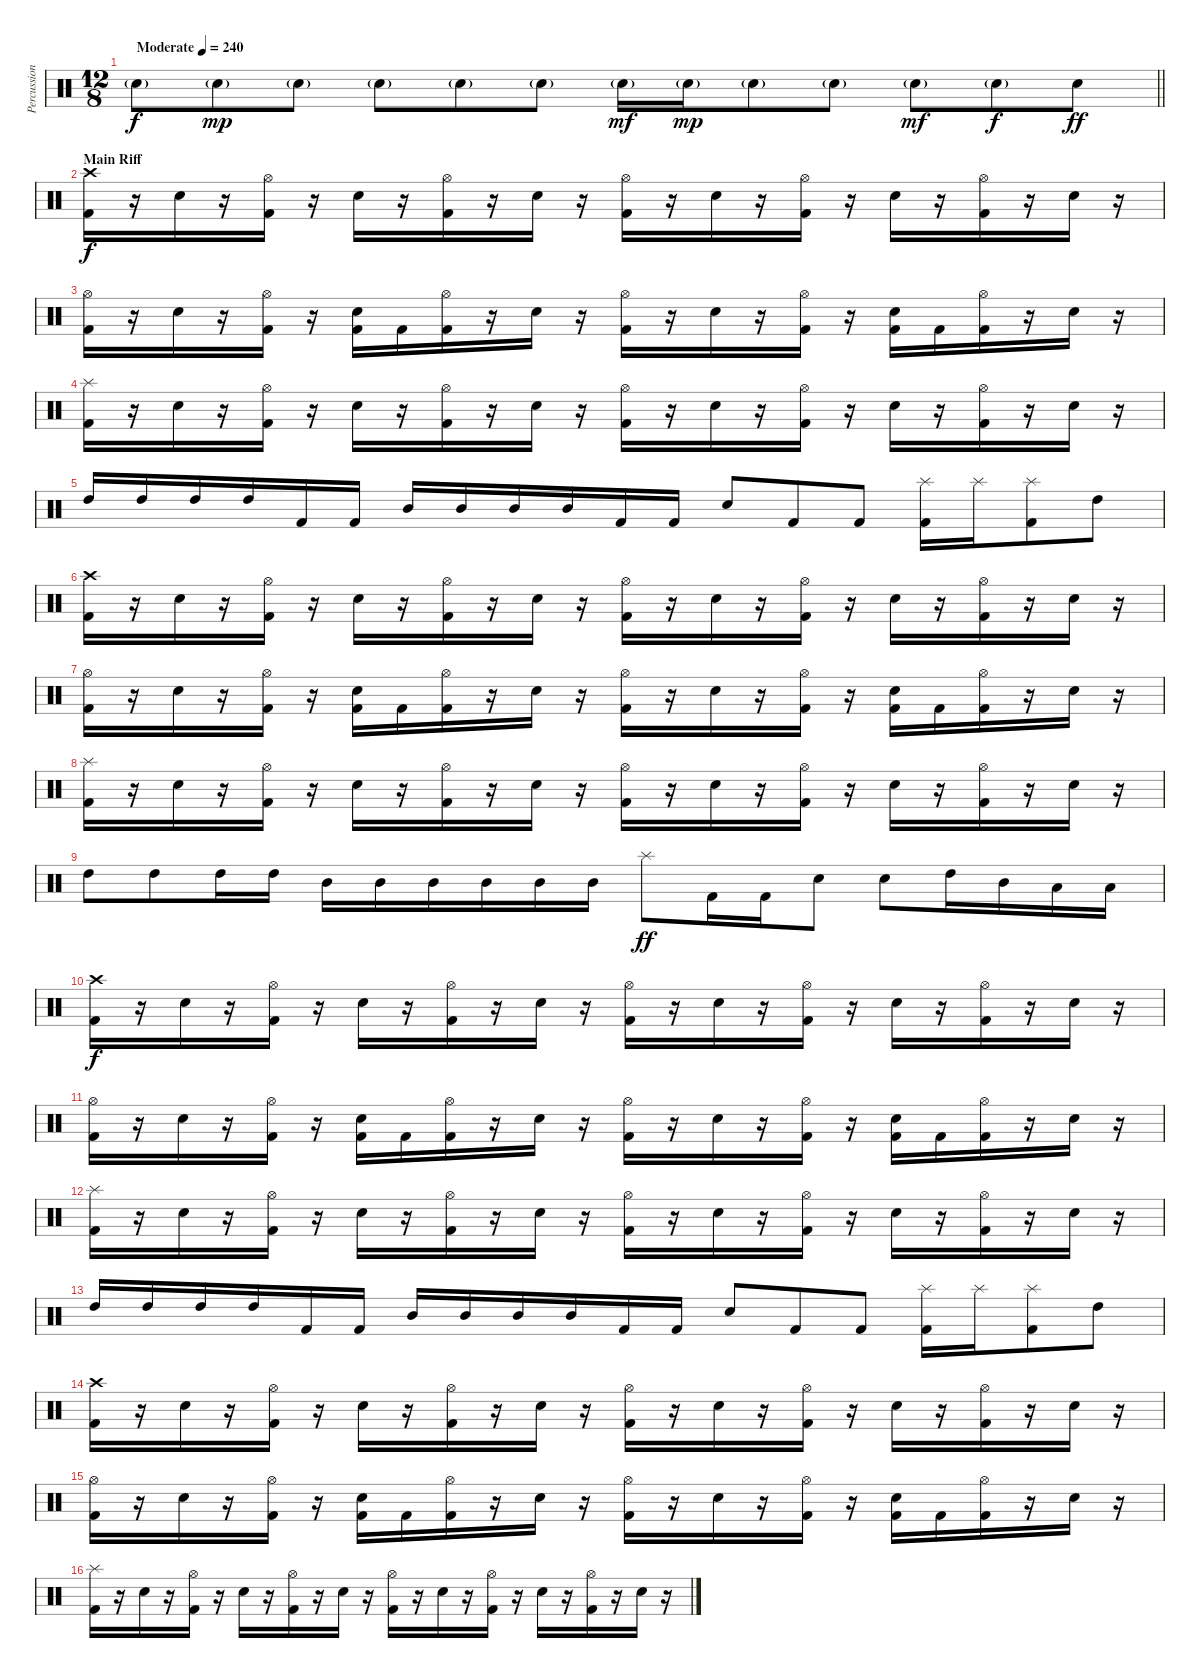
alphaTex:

\track ("Percussion" "Percussion") {instrument percussion}
\staff {score}
\articulation defaults
\ts (12 8)
\tempo (240 "Moderate")
\clef neutral
\barLineRight lightlight
\ks c "Snare (hit) 2"{g}.8{dy f} "Snare (hit) 2"{g}.8{dy mp} "Snare (hit) 2"{g}.8 "Snare (hit) 2"{g}.8 "Snare (hit) 2"{g}.8 "Snare (hit) 2"{g}.8 "Snare (hit) 2"{g}.16{dy mf} "Snare (hit) 2"{g}.16{dy mp} "Snare (hit) 2"{g}.8 "Snare (hit) 2"{g}.8 "Snare (hit) 2"{g}.8{dy mf} "Snare (hit) 2"{g}.8{dy f} "Snare (hit) 2".8{dy ff}
|
\section ("" "Main Riff")
("Crash high (hit)" "Kick (hit) 2").16{dy f} r.16 "Snare (hit) 2".16 r.16 ("Hi-Hat (open)" "Kick (hit) 2").16 r.16 "Snare (hit) 2".16 r.16 ("Hi-Hat (open)" "Kick (hit) 2").16 r.16 "Snare (hit) 2".16 r.16 ("Hi-Hat (open)" "Kick (hit) 2").16 r.16 "Snare (hit) 2".16 r.16 ("Hi-Hat (open)" "Kick (hit) 2").16 r.16 "Snare (hit) 2".16 r.16 ("Hi-Hat (open)" "Kick (hit) 2").16 r.16 "Snare (hit) 2".16 r.16 |
("Hi-Hat (open)" "Kick (hit) 2").16 r.16 "Snare (hit) 2".16 r.16 ("Hi-Hat (open)" "Kick (hit) 2").16 r.16 ("Snare (hit) 2" "Kick (hit) 2").16 "Kick (hit) 2".16 ("Hi-Hat (open)" "Kick (hit) 2").16 r.16 "Snare (hit) 2".16 r.16 ("Hi-Hat (open)" "Kick (hit) 2").16 r.16 "Snare (hit) 2".16 r.16 ("Hi-Hat (open)" "Kick (hit) 2").16 r.16 ("Snare (hit) 2" "Kick (hit) 2").16 "Kick (hit) 2".16 ("Hi-Hat (open)" "Kick (hit) 2").16 r.16 "Snare (hit) 2".16 r.16 |
("Splash (hit)" "Kick (hit) 2").16 r.16 "Snare (hit) 2".16 r.16 ("Hi-Hat (open)" "Kick (hit) 2").16 r.16 "Snare (hit) 2".16 r.16 ("Hi-Hat (open)" "Kick (hit) 2").16 r.16 "Snare (hit) 2".16 r.16 ("Hi-Hat (open)" "Kick (hit) 2").16 r.16 "Snare (hit) 2".16 r.16 ("Hi-Hat (open)" "Kick (hit) 2").16 r.16 "Snare (hit) 2".16 r.16 ("Hi-Hat (open)" "Kick (hit) 2").16 r.16 "Snare (hit) 2".16 r.16 |
"High Tom (hit)".16 "High Tom (hit)".16 "High Tom (hit)".16 "High Tom (hit)".16 "Kick (hit) 2".16 "Kick (hit) 2".16 "Mid Tom (hit)".16 "Mid Tom (hit)".16 "Mid Tom (hit)".16 "Mid Tom (hit)".16 "Kick (hit) 2".16 "Kick (hit) 2".16 "Snare (hit) 2".8 "Kick (hit) 2".8 "Kick (hit) 2".8 ("Splash (hit)" "Kick (hit) 2").16 "Splash (hit)".16 ("Splash (hit)" "Kick (hit) 2").8 "High Tom (hit)".8 |
("Crash high (hit)" "Kick (hit) 2").16 r.16 "Snare (hit) 2".16 r.16 ("Hi-Hat (open)" "Kick (hit) 2").16 r.16 "Snare (hit) 2".16 r.16 ("Hi-Hat (open)" "Kick (hit) 2").16 r.16 "Snare (hit) 2".16 r.16 ("Hi-Hat (open)" "Kick (hit) 2").16 r.16 "Snare (hit) 2".16 r.16 ("Hi-Hat (open)" "Kick (hit) 2").16 r.16 "Snare (hit) 2".16 r.16 ("Hi-Hat (open)" "Kick (hit) 2").16 r.16 "Snare (hit) 2".16 r.16 |
("Hi-Hat (open)" "Kick (hit) 2").16 r.16 "Snare (hit) 2".16 r.16 ("Hi-Hat (open)" "Kick (hit) 2").16 r.16 ("Snare (hit) 2" "Kick (hit) 2").16 "Kick (hit) 2".16 ("Hi-Hat (open)" "Kick (hit) 2").16 r.16 "Snare (hit) 2".16 r.16 ("Hi-Hat (open)" "Kick (hit) 2").16 r.16 "Snare (hit) 2".16 r.16 ("Hi-Hat (open)" "Kick (hit) 2").16 r.16 ("Snare (hit) 2" "Kick (hit) 2").16 "Kick (hit) 2".16 ("Hi-Hat (open)" "Kick (hit) 2").16 r.16 "Snare (hit) 2".16 r.16 |
("Splash (hit)" "Kick (hit) 2").16 r.16 "Snare (hit) 2".16 r.16 ("Hi-Hat (open)" "Kick (hit) 2").16 r.16 "Snare (hit) 2".16 r.16 ("Hi-Hat (open)" "Kick (hit) 2").16 r.16 "Snare (hit) 2".16 r.16 ("Hi-Hat (open)" "Kick (hit) 2").16 r.16 "Snare (hit) 2".16 r.16 ("Hi-Hat (open)" "Kick (hit) 2").16 r.16 "Snare (hit) 2".16 r.16 ("Hi-Hat (open)" "Kick (hit) 2").16 r.16 "Snare (hit) 2".16 r.16 |
"High Tom (hit)".8 "High Tom (hit)".8 "High Tom (hit)".16 "High Tom (hit)".16 "Mid Tom (hit)".16 "Mid Tom (hit)".16 "Mid Tom (hit)".16 "Mid Tom (hit)".16 "Mid Tom (hit)".16 "Mid Tom (hit)".16 "Splash (hit)".8{dy ff} "Kick (hit) 2".16 "Kick (hit) 2".16 "Snare (hit) 2".8 "Snare (hit) 2".8 "High Tom (hit)".16 "Mid Tom (hit)".16 "Low Tom (hit)".16 "Low Tom (hit)".16 |
("Crash high (hit)" "Kick (hit) 2").16{dy f} r.16 "Snare (hit) 2".16 r.16 ("Hi-Hat (open)" "Kick (hit) 2").16 r.16 "Snare (hit) 2".16 r.16 ("Hi-Hat (open)" "Kick (hit) 2").16 r.16 "Snare (hit) 2".16 r.16 ("Hi-Hat (open)" "Kick (hit) 2").16 r.16 "Snare (hit) 2".16 r.16 ("Hi-Hat (open)" "Kick (hit) 2").16 r.16 "Snare (hit) 2".16 r.16 ("Hi-Hat (open)" "Kick (hit) 2").16 r.16 "Snare (hit) 2".16 r.16 |
("Hi-Hat (open)" "Kick (hit) 2").16 r.16 "Snare (hit) 2".16 r.16 ("Hi-Hat (open)" "Kick (hit) 2").16 r.16 ("Snare (hit) 2" "Kick (hit) 2").16 "Kick (hit) 2".16 ("Hi-Hat (open)" "Kick (hit) 2").16 r.16 "Snare (hit) 2".16 r.16 ("Hi-Hat (open)" "Kick (hit) 2").16 r.16 "Snare (hit) 2".16 r.16 ("Hi-Hat (open)" "Kick (hit) 2").16 r.16 ("Snare (hit) 2" "Kick (hit) 2").16 "Kick (hit) 2".16 ("Hi-Hat (open)" "Kick (hit) 2").16 r.16 "Snare (hit) 2".16 r.16 |
("Splash (hit)" "Kick (hit) 2").16 r.16 "Snare (hit) 2".16 r.16 ("Hi-Hat (open)" "Kick (hit) 2").16 r.16 "Snare (hit) 2".16 r.16 ("Hi-Hat (open)" "Kick (hit) 2").16 r.16 "Snare (hit) 2".16 r.16 ("Hi-Hat (open)" "Kick (hit) 2").16 r.16 "Snare (hit) 2".16 r.16 ("Hi-Hat (open)" "Kick (hit) 2").16 r.16 "Snare (hit) 2".16 r.16 ("Hi-Hat (open)" "Kick (hit) 2").16 r.16 "Snare (hit) 2".16 r.16 |
"High Tom (hit)".16 "High Tom (hit)".16 "High Tom (hit)".16 "High Tom (hit)".16 "Kick (hit) 2".16 "Kick (hit) 2".16 "Mid Tom (hit)".16 "Mid Tom (hit)".16 "Mid Tom (hit)".16 "Mid Tom (hit)".16 "Kick (hit) 2".16 "Kick (hit) 2".16 "Snare (hit) 2".8 "Kick (hit) 2".8 "Kick (hit) 2".8 ("Splash (hit)" "Kick (hit) 2").16 "Splash (hit)".16 ("Splash (hit)" "Kick (hit) 2").8 "High Tom (hit)".8 |
("Crash high (hit)" "Kick (hit) 2").16 r.16 "Snare (hit) 2".16 r.16 ("Hi-Hat (open)" "Kick (hit) 2").16 r.16 "Snare (hit) 2".16 r.16 ("Hi-Hat (open)" "Kick (hit) 2").16 r.16 "Snare (hit) 2".16 r.16 ("Hi-Hat (open)" "Kick (hit) 2").16 r.16 "Snare (hit) 2".16 r.16 ("Hi-Hat (open)" "Kick (hit) 2").16 r.16 "Snare (hit) 2".16 r.16 ("Hi-Hat (open)" "Kick (hit) 2").16 r.16 "Snare (hit) 2".16 r.16 |
("Hi-Hat (open)" "Kick (hit) 2").16 r.16 "Snare (hit) 2".16 r.16 ("Hi-Hat (open)" "Kick (hit) 2").16 r.16 ("Snare (hit) 2" "Kick (hit) 2").16 "Kick (hit) 2".16 ("Hi-Hat (open)" "Kick (hit) 2").16 r.16 "Snare (hit) 2".16 r.16 ("Hi-Hat (open)" "Kick (hit) 2").16 r.16 "Snare (hit) 2".16 r.16 ("Hi-Hat (open)" "Kick (hit) 2").16 r.16 ("Snare (hit) 2" "Kick (hit) 2").16 "Kick (hit) 2".16 ("Hi-Hat (open)" "Kick (hit) 2").16 r.16 "Snare (hit) 2".16 r.16 |
("Splash (hit)" "Kick (hit) 2").16 r.16 "Snare (hit) 2".16 r.16 ("Hi-Hat (open)" "Kick (hit) 2").16 r.16 "Snare (hit) 2".16 r.16 ("Hi-Hat (open)" "Kick (hit) 2").16 r.16 "Snare (hit) 2".16 r.16 ("Hi-Hat (open)" "Kick (hit) 2").16 r.16 "Snare (hit) 2".16 r.16 ("Hi-Hat (open)" "Kick (hit) 2").16 r.16 "Snare (hit) 2".16 r.16 ("Hi-Hat (open)" "Kick (hit) 2").16 r.16 "Snare (hit) 2".16 r.16
